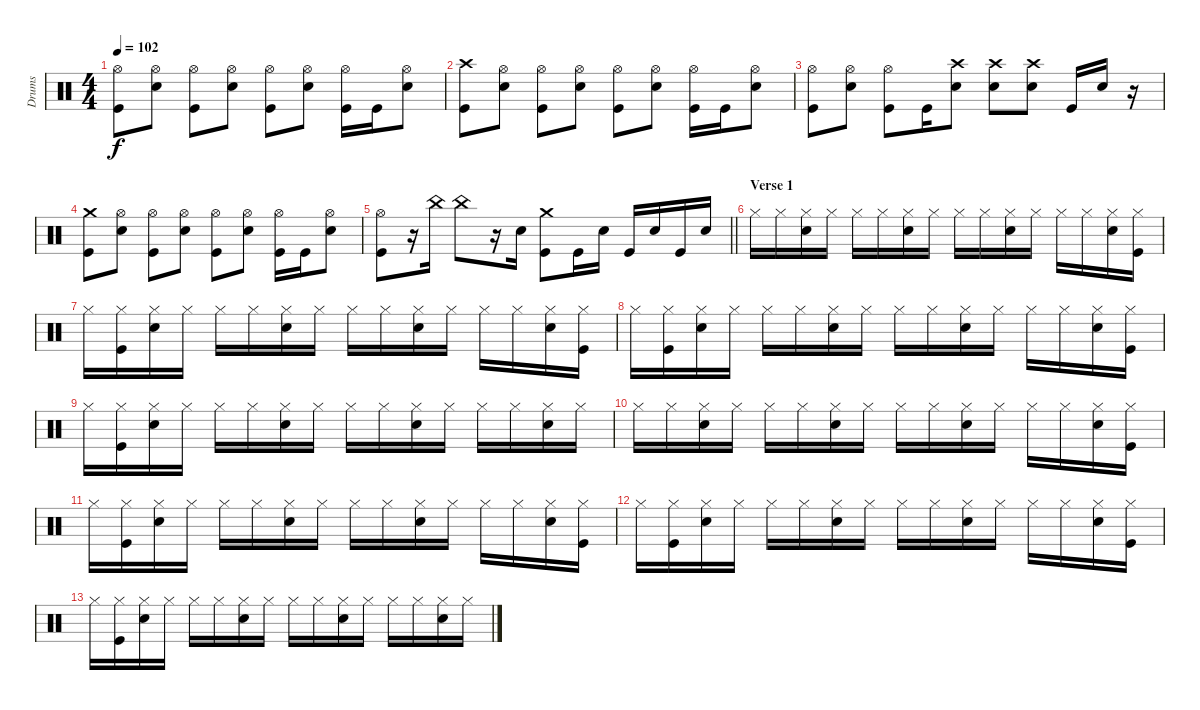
\track ("Drums" "Drums") {instrument percussion}
\staff {score}
\articulation defaults
\ts (4 4)
\tempo 102
\clef neutral
\ks c
("Hi-Hat (open)" "Kick (hit)").8{dy f} ("Hi-Hat (open)" "Snare (hit) 2").8 ("Hi-Hat (open)" "Kick (hit)").8 ("Hi-Hat (open)" "Snare (hit) 2").8 ("Hi-Hat (open)" "Kick (hit)").8 ("Hi-Hat (open)" "Snare (hit) 2").8 ("Hi-Hat (open)" "Kick (hit)").16 "Kick (hit)".16 ("Hi-Hat (open)" "Snare (hit) 2").8 |
("Crash high (hit)" "Kick (hit)").8 ("Hi-Hat (open)" "Snare (hit) 2").8 ("Hi-Hat (open)" "Kick (hit)").8 ("Hi-Hat (open)" "Snare (hit) 2").8 ("Hi-Hat (open)" "Kick (hit)").8 ("Hi-Hat (open)" "Snare (hit) 2").8 ("Hi-Hat (open)" "Kick (hit)").16 "Kick (hit)".16 ("Hi-Hat (open)" "Snare (hit) 2").8 |
("Hi-Hat (open)" "Kick (hit)").8 ("Hi-Hat (open)" "Snare (hit) 2").8 ("Hi-Hat (open)" "Kick (hit)").8 "Kick (hit)".16 ("Crash high (hit)" "Snare (hit) 2").8 ("Crash high (hit)" "Snare (hit) 2").8 ("Crash high (hit)" "Snare (hit) 2").8 "Kick (hit)".16 "Snare (hit) 2".16 r.16 |
("Crash medium (hit)" "Kick (hit)").8 ("Hi-Hat (open)" "Snare (hit) 2").8 ("Hi-Hat (open)" "Kick (hit)").8 ("Hi-Hat (open)" "Snare (hit) 2").8 ("Hi-Hat (open)" "Kick (hit)").8 ("Hi-Hat (open)" "Snare (hit) 2").8 ("Hi-Hat (open)" "Kick (hit)").16 "Kick (hit)".16 ("Hi-Hat (open)" "Snare (hit) 2").8 |
\barLineRight lightlight
("Hi-Hat (open)" "Kick (hit)").8 r.16 "China (hit)".16 "China (hit)".8 r.16 "Snare (hit) 2".16 ("Crash medium (hit)" "Kick (hit)").8 "Kick (hit)".16 "Snare (hit) 2".16 "Kick (hit)".16 "Snare (hit) 2".16 "Kick (hit)".16 "Snare (hit) 2".16 |
\section ("" "Verse 1")
"Hi-Hat (closed)".16 "Hi-Hat (closed)".16 ("Hi-Hat (closed)" "Snare (hit) 2").16 "Hi-Hat (closed)".16 "Hi-Hat (closed)".16 "Hi-Hat (closed)".16 ("Hi-Hat (closed)" "Snare (hit) 2").16 "Hi-Hat (closed)".16 "Hi-Hat (closed)".16 "Hi-Hat (closed)".16 ("Hi-Hat (closed)" "Snare (hit) 2").16 "Hi-Hat (closed)".16 "Hi-Hat (closed)".16 "Hi-Hat (closed)".16 ("Hi-Hat (closed)" "Snare (hit) 2").16 ("Hi-Hat (closed)" "Kick (hit)").16 |
"Hi-Hat (closed)".16 ("Hi-Hat (closed)" "Kick (hit)").16 ("Hi-Hat (closed)" "Snare (hit) 2").16 "Hi-Hat (closed)".16 "Hi-Hat (closed)".16 "Hi-Hat (closed)".16 ("Hi-Hat (closed)" "Snare (hit) 2").16 "Hi-Hat (closed)".16 "Hi-Hat (closed)".16 "Hi-Hat (closed)".16 ("Hi-Hat (closed)" "Snare (hit) 2").16 "Hi-Hat (closed)".16 "Hi-Hat (closed)".16 "Hi-Hat (closed)".16 ("Hi-Hat (closed)" "Snare (hit) 2").16 ("Hi-Hat (closed)" "Kick (hit)").16 |
"Hi-Hat (closed)".16 ("Hi-Hat (closed)" "Kick (hit)").16 ("Hi-Hat (closed)" "Snare (hit) 2").16 "Hi-Hat (closed)".16 "Hi-Hat (closed)".16 "Hi-Hat (closed)".16 ("Hi-Hat (closed)" "Snare (hit) 2").16 "Hi-Hat (closed)".16 "Hi-Hat (closed)".16 "Hi-Hat (closed)".16 ("Hi-Hat (closed)" "Snare (hit) 2").16 "Hi-Hat (closed)".16 "Hi-Hat (closed)".16 "Hi-Hat (closed)".16 ("Hi-Hat (closed)" "Snare (hit) 2").16 ("Hi-Hat (closed)" "Kick (hit)").16 |
"Hi-Hat (closed)".16 ("Hi-Hat (closed)" "Kick (hit)").16 ("Hi-Hat (closed)" "Snare (hit) 2").16 "Hi-Hat (closed)".16 "Hi-Hat (closed)".16 "Hi-Hat (closed)".16 ("Hi-Hat (closed)" "Snare (hit) 2").16 "Hi-Hat (closed)".16 "Hi-Hat (closed)".16 "Hi-Hat (closed)".16 ("Hi-Hat (closed)" "Snare (hit) 2").16 "Hi-Hat (closed)".16 "Hi-Hat (closed)".16 "Hi-Hat (closed)".16 ("Hi-Hat (closed)" "Snare (hit) 2").16 "Hi-Hat (closed)".16 |
"Hi-Hat (closed)".16 "Hi-Hat (closed)".16 ("Hi-Hat (closed)" "Snare (hit) 2").16 "Hi-Hat (closed)".16 "Hi-Hat (closed)".16 "Hi-Hat (closed)".16 ("Hi-Hat (closed)" "Snare (hit) 2").16 "Hi-Hat (closed)".16 "Hi-Hat (closed)".16 "Hi-Hat (closed)".16 ("Hi-Hat (closed)" "Snare (hit) 2").16 "Hi-Hat (closed)".16 "Hi-Hat (closed)".16 "Hi-Hat (closed)".16 ("Hi-Hat (closed)" "Snare (hit) 2").16 ("Hi-Hat (closed)" "Kick (hit)").16 |
"Hi-Hat (closed)".16 ("Hi-Hat (closed)" "Kick (hit)").16 ("Hi-Hat (closed)" "Snare (hit) 2").16 "Hi-Hat (closed)".16 "Hi-Hat (closed)".16 "Hi-Hat (closed)".16 ("Hi-Hat (closed)" "Snare (hit) 2").16 "Hi-Hat (closed)".16 "Hi-Hat (closed)".16 "Hi-Hat (closed)".16 ("Hi-Hat (closed)" "Snare (hit) 2").16 "Hi-Hat (closed)".16 "Hi-Hat (closed)".16 "Hi-Hat (closed)".16 ("Hi-Hat (closed)" "Snare (hit) 2").16 ("Hi-Hat (closed)" "Kick (hit)").16 |
"Hi-Hat (closed)".16 ("Hi-Hat (closed)" "Kick (hit)").16 ("Hi-Hat (closed)" "Snare (hit) 2").16 "Hi-Hat (closed)".16 "Hi-Hat (closed)".16 "Hi-Hat (closed)".16 ("Hi-Hat (closed)" "Snare (hit) 2").16 "Hi-Hat (closed)".16 "Hi-Hat (closed)".16 "Hi-Hat (closed)".16 ("Hi-Hat (closed)" "Snare (hit) 2").16 "Hi-Hat (closed)".16 "Hi-Hat (closed)".16 "Hi-Hat (closed)".16 ("Hi-Hat (closed)" "Snare (hit) 2").16 ("Hi-Hat (closed)" "Kick (hit)").16 |
"Hi-Hat (closed)".16 ("Hi-Hat (closed)" "Kick (hit)").16 ("Hi-Hat (closed)" "Snare (hit) 2").16 "Hi-Hat (closed)".16 "Hi-Hat (closed)".16 "Hi-Hat (closed)".16 ("Hi-Hat (closed)" "Snare (hit) 2").16 "Hi-Hat (closed)".16 "Hi-Hat (closed)".16 "Hi-Hat (closed)".16 ("Hi-Hat (closed)" "Snare (hit) 2").16 "Hi-Hat (closed)".16 "Hi-Hat (closed)".16 "Hi-Hat (closed)".16 ("Hi-Hat (closed)" "Snare (hit) 2").16 "Hi-Hat (closed)".16
